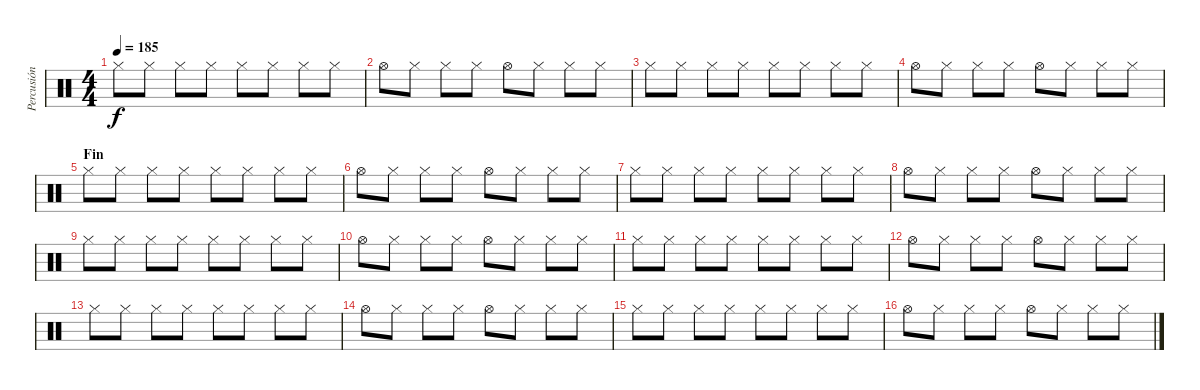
\track ("Percusión" "Percusión") {instrument percussion}
\staff {score}
\articulation defaults
\ts (4 4)
\tempo 185
\clef neutral
\ks c "Hi-Hat (closed)".8{dy f} "Hi-Hat (closed)".8 "Hi-Hat (closed)".8 "Hi-Hat (closed)".8 "Hi-Hat (closed)".8 "Hi-Hat (closed)".8 "Hi-Hat (closed)".8 "Hi-Hat (closed)".8
|
"Hi-Hat (open)".8 "Hi-Hat (closed)".8 "Hi-Hat (closed)".8 "Hi-Hat (closed)".8 "Hi-Hat (open)".8 "Hi-Hat (closed)".8 "Hi-Hat (closed)".8 "Hi-Hat (closed)".8 |
"Hi-Hat (closed)".8 "Hi-Hat (closed)".8 "Hi-Hat (closed)".8 "Hi-Hat (closed)".8 "Hi-Hat (closed)".8 "Hi-Hat (closed)".8 "Hi-Hat (closed)".8 "Hi-Hat (closed)".8 |
"Hi-Hat (open)".8 "Hi-Hat (closed)".8 "Hi-Hat (closed)".8 "Hi-Hat (closed)".8 "Hi-Hat (open)".8 "Hi-Hat (closed)".8 "Hi-Hat (closed)".8 "Hi-Hat (closed)".8 |
\section ("" "Fin")
"Hi-Hat (closed)".8 "Hi-Hat (closed)".8 "Hi-Hat (closed)".8 "Hi-Hat (closed)".8 "Hi-Hat (closed)".8 "Hi-Hat (closed)".8 "Hi-Hat (closed)".8 "Hi-Hat (closed)".8 |
"Hi-Hat (open)".8 "Hi-Hat (closed)".8 "Hi-Hat (closed)".8 "Hi-Hat (closed)".8 "Hi-Hat (open)".8 "Hi-Hat (closed)".8 "Hi-Hat (closed)".8 "Hi-Hat (closed)".8 |
"Hi-Hat (closed)".8 "Hi-Hat (closed)".8 "Hi-Hat (closed)".8 "Hi-Hat (closed)".8 "Hi-Hat (closed)".8 "Hi-Hat (closed)".8 "Hi-Hat (closed)".8 "Hi-Hat (closed)".8 |
"Hi-Hat (open)".8 "Hi-Hat (closed)".8 "Hi-Hat (closed)".8 "Hi-Hat (closed)".8 "Hi-Hat (open)".8 "Hi-Hat (closed)".8 "Hi-Hat (closed)".8 "Hi-Hat (closed)".8 |
"Hi-Hat (closed)".8 "Hi-Hat (closed)".8 "Hi-Hat (closed)".8 "Hi-Hat (closed)".8 "Hi-Hat (closed)".8 "Hi-Hat (closed)".8 "Hi-Hat (closed)".8 "Hi-Hat (closed)".8 |
"Hi-Hat (open)".8 "Hi-Hat (closed)".8 "Hi-Hat (closed)".8 "Hi-Hat (closed)".8 "Hi-Hat (open)".8 "Hi-Hat (closed)".8 "Hi-Hat (closed)".8 "Hi-Hat (closed)".8 |
"Hi-Hat (closed)".8 "Hi-Hat (closed)".8 "Hi-Hat (closed)".8 "Hi-Hat (closed)".8 "Hi-Hat (closed)".8 "Hi-Hat (closed)".8 "Hi-Hat (closed)".8 "Hi-Hat (closed)".8 |
"Hi-Hat (open)".8 "Hi-Hat (closed)".8 "Hi-Hat (closed)".8 "Hi-Hat (closed)".8 "Hi-Hat (open)".8 "Hi-Hat (closed)".8 "Hi-Hat (closed)".8 "Hi-Hat (closed)".8 |
"Hi-Hat (closed)".8 "Hi-Hat (closed)".8 "Hi-Hat (closed)".8 "Hi-Hat (closed)".8 "Hi-Hat (closed)".8 "Hi-Hat (closed)".8 "Hi-Hat (closed)".8 "Hi-Hat (closed)".8 |
"Hi-Hat (open)".8 "Hi-Hat (closed)".8 "Hi-Hat (closed)".8 "Hi-Hat (closed)".8 "Hi-Hat (open)".8 "Hi-Hat (closed)".8 "Hi-Hat (closed)".8 "Hi-Hat (closed)".8 |
"Hi-Hat (closed)".8 "Hi-Hat (closed)".8 "Hi-Hat (closed)".8 "Hi-Hat (closed)".8 "Hi-Hat (closed)".8 "Hi-Hat (closed)".8 "Hi-Hat (closed)".8 "Hi-Hat (closed)".8 |
"Hi-Hat (open)".8 "Hi-Hat (closed)".8 "Hi-Hat (closed)".8 "Hi-Hat (closed)".8 "Hi-Hat (open)".8 "Hi-Hat (closed)".8 "Hi-Hat (closed)".8 "Hi-Hat (closed)".8
